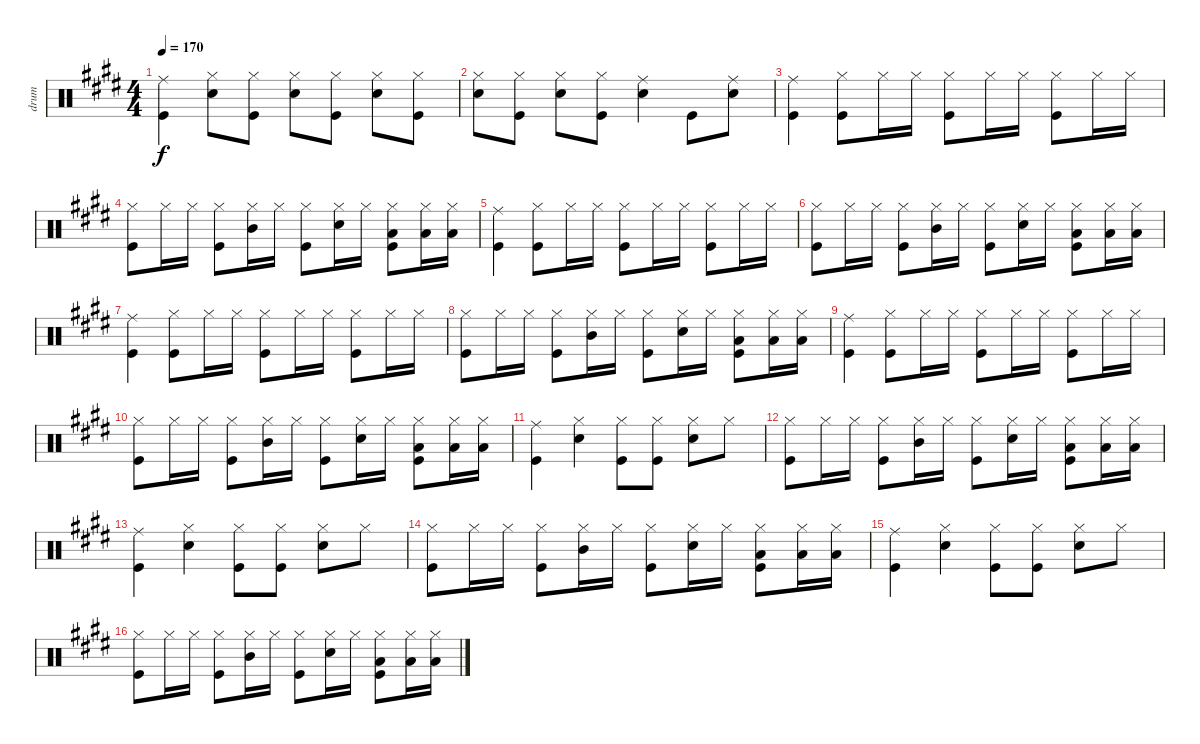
\track ("drum" "drum") {instrument percussion}
\staff {score}
\articulation defaults
\ts (4 4)
\tempo 170
\clef neutral
\ks e
("Ride (middle)" "Kick (hit)").4{dy f} ("Hi-Hat (closed)" "Snare (hit) 2").8 ("Hi-Hat (closed)" "Kick (hit)").8 ("Snare (hit) 2" "Hi-Hat (closed)").8 ("Kick (hit)" "Hi-Hat (closed)").8 ("Snare (hit) 2" "Hi-Hat (closed)").8 ("Kick (hit)" "Hi-Hat (closed)").8 |
("Snare (hit) 2" "Hi-Hat (closed)").8 ("Kick (hit)" "Hi-Hat (closed)").8 ("Snare (hit) 2" "Hi-Hat (closed)").8 ("Kick (hit)" "Hi-Hat (closed)").8 ("Ride (middle)" "Snare (hit) 2").4 "Kick (hit)".8 ("Ride (middle)" "Snare (hit) 2").8 |
("Ride (middle)" "Kick (hit)").4 ("Hi-Hat (closed)" "Kick (hit)").8 "Hi-Hat (closed)".16 "Hi-Hat (closed)".16 ("Hi-Hat (closed)" "Kick (hit)").8 "Hi-Hat (closed)".16 "Hi-Hat (closed)".16 ("Hi-Hat (closed)" "Kick (hit)").8 "Hi-Hat (closed)".16 "Hi-Hat (closed)".16 |
("Hi-Hat (closed)" "Kick (hit)").8 "Hi-Hat (closed)".16 "Hi-Hat (closed)".16 ("Hi-Hat (closed)" "Kick (hit)").8 ("Hi-Hat (closed)" "Mid Tom (hit)").16 "Hi-Hat (closed)".16 ("Hi-Hat (closed)" "Kick (hit)").8 ("Hi-Hat (closed)" "Snare (hit) 2").16 "Hi-Hat (closed)".16 ("Hi-Hat (closed)" "Low Floor Tom (hit)" "Kick (hit)").8 ("Hi-Hat (closed)" "Low Floor Tom (hit)").16 ("Hi-Hat (closed)" "Low Floor Tom (hit)").16 |
("Ride (middle)" "Kick (hit)").4 ("Hi-Hat (closed)" "Kick (hit)").8 "Hi-Hat (closed)".16 "Hi-Hat (closed)".16 ("Hi-Hat (closed)" "Kick (hit)").8 "Hi-Hat (closed)".16 "Hi-Hat (closed)".16 ("Hi-Hat (closed)" "Kick (hit)").8 "Hi-Hat (closed)".16 "Hi-Hat (closed)".16 |
("Hi-Hat (closed)" "Kick (hit)").8 "Hi-Hat (closed)".16 "Hi-Hat (closed)".16 ("Hi-Hat (closed)" "Kick (hit)").8 ("Hi-Hat (closed)" "Mid Tom (hit)").16 "Hi-Hat (closed)".16 ("Hi-Hat (closed)" "Kick (hit)").8 ("Hi-Hat (closed)" "Snare (hit) 2").16 "Hi-Hat (closed)".16 ("Hi-Hat (closed)" "Low Floor Tom (hit)" "Kick (hit)").8 ("Hi-Hat (closed)" "Low Floor Tom (hit)").16 ("Hi-Hat (closed)" "Low Floor Tom (hit)").16 |
("Ride (middle)" "Kick (hit)").4 ("Hi-Hat (closed)" "Kick (hit)").8 "Hi-Hat (closed)".16 "Hi-Hat (closed)".16 ("Hi-Hat (closed)" "Kick (hit)").8 "Hi-Hat (closed)".16 "Hi-Hat (closed)".16 ("Hi-Hat (closed)" "Kick (hit)").8 "Hi-Hat (closed)".16 "Hi-Hat (closed)".16 |
("Hi-Hat (closed)" "Kick (hit)").8 "Hi-Hat (closed)".16 "Hi-Hat (closed)".16 ("Hi-Hat (closed)" "Kick (hit)").8 ("Hi-Hat (closed)" "Mid Tom (hit)").16 "Hi-Hat (closed)".16 ("Hi-Hat (closed)" "Kick (hit)").8 ("Hi-Hat (closed)" "Snare (hit) 2").16 "Hi-Hat (closed)".16 ("Hi-Hat (closed)" "Low Floor Tom (hit)" "Kick (hit)").8 ("Hi-Hat (closed)" "Low Floor Tom (hit)").16 ("Hi-Hat (closed)" "Low Floor Tom (hit)").16 |
("Ride (middle)" "Kick (hit)").4 ("Hi-Hat (closed)" "Kick (hit)").8 "Hi-Hat (closed)".16 "Hi-Hat (closed)".16 ("Hi-Hat (closed)" "Kick (hit)").8 "Hi-Hat (closed)".16 "Hi-Hat (closed)".16 ("Hi-Hat (closed)" "Kick (hit)").8 "Hi-Hat (closed)".16 "Hi-Hat (closed)".16 |
("Hi-Hat (closed)" "Kick (hit)").8 "Hi-Hat (closed)".16 "Hi-Hat (closed)".16 ("Hi-Hat (closed)" "Kick (hit)").8 ("Hi-Hat (closed)" "Mid Tom (hit)").16 "Hi-Hat (closed)".16 ("Hi-Hat (closed)" "Kick (hit)").8 ("Hi-Hat (closed)" "Snare (hit) 2").16 "Hi-Hat (closed)".16 ("Hi-Hat (closed)" "Low Floor Tom (hit)" "Kick (hit)").8 ("Hi-Hat (closed)" "Low Floor Tom (hit)").16 ("Hi-Hat (closed)" "Low Floor Tom (hit)").16 |
("Ride (middle)" "Kick (hit)").4 ("Hi-Hat (closed)" "Snare (hit) 2").4 ("Hi-Hat (closed)" "Kick (hit)").8 ("Hi-Hat (closed)" "Kick (hit)").8 ("Snare (hit) 2" "Hi-Hat (closed)").8 "Hi-Hat (closed)".8 |
("Hi-Hat (closed)" "Kick (hit)").8 "Hi-Hat (closed)".16 "Hi-Hat (closed)".16 ("Hi-Hat (closed)" "Kick (hit)").8 ("Hi-Hat (closed)" "Mid Tom (hit)").16 "Hi-Hat (closed)".16 ("Hi-Hat (closed)" "Kick (hit)").8 ("Hi-Hat (closed)" "Snare (hit) 2").16 "Hi-Hat (closed)".16 ("Hi-Hat (closed)" "Low Floor Tom (hit)" "Kick (hit)").8 ("Hi-Hat (closed)" "Low Floor Tom (hit)").16 ("Hi-Hat (closed)" "Low Floor Tom (hit)").16 |
("Ride (middle)" "Kick (hit)").4 ("Hi-Hat (closed)" "Snare (hit) 2").4 ("Hi-Hat (closed)" "Kick (hit)").8 ("Hi-Hat (closed)" "Kick (hit)").8 ("Snare (hit) 2" "Hi-Hat (closed)").8 "Hi-Hat (closed)".8 |
("Hi-Hat (closed)" "Kick (hit)").8 "Hi-Hat (closed)".16 "Hi-Hat (closed)".16 ("Hi-Hat (closed)" "Kick (hit)").8 ("Hi-Hat (closed)" "Mid Tom (hit)").16 "Hi-Hat (closed)".16 ("Hi-Hat (closed)" "Kick (hit)").8 ("Hi-Hat (closed)" "Snare (hit) 2").16 "Hi-Hat (closed)".16 ("Hi-Hat (closed)" "Low Floor Tom (hit)" "Kick (hit)").8 ("Hi-Hat (closed)" "Low Floor Tom (hit)").16 ("Hi-Hat (closed)" "Low Floor Tom (hit)").16 |
("Ride (middle)" "Kick (hit)").4 ("Hi-Hat (closed)" "Snare (hit) 2").4 ("Hi-Hat (closed)" "Kick (hit)").8 ("Hi-Hat (closed)" "Kick (hit)").8 ("Snare (hit) 2" "Hi-Hat (closed)").8 "Hi-Hat (closed)".8 |
("Hi-Hat (closed)" "Kick (hit)").8 "Hi-Hat (closed)".16 "Hi-Hat (closed)".16 ("Hi-Hat (closed)" "Kick (hit)").8 ("Hi-Hat (closed)" "Mid Tom (hit)").16 "Hi-Hat (closed)".16 ("Hi-Hat (closed)" "Kick (hit)").8 ("Hi-Hat (closed)" "Snare (hit) 2").16 "Hi-Hat (closed)".16 ("Hi-Hat (closed)" "Low Floor Tom (hit)" "Kick (hit)").8 ("Hi-Hat (closed)" "Low Floor Tom (hit)").16 ("Hi-Hat (closed)" "Low Floor Tom (hit)").16
